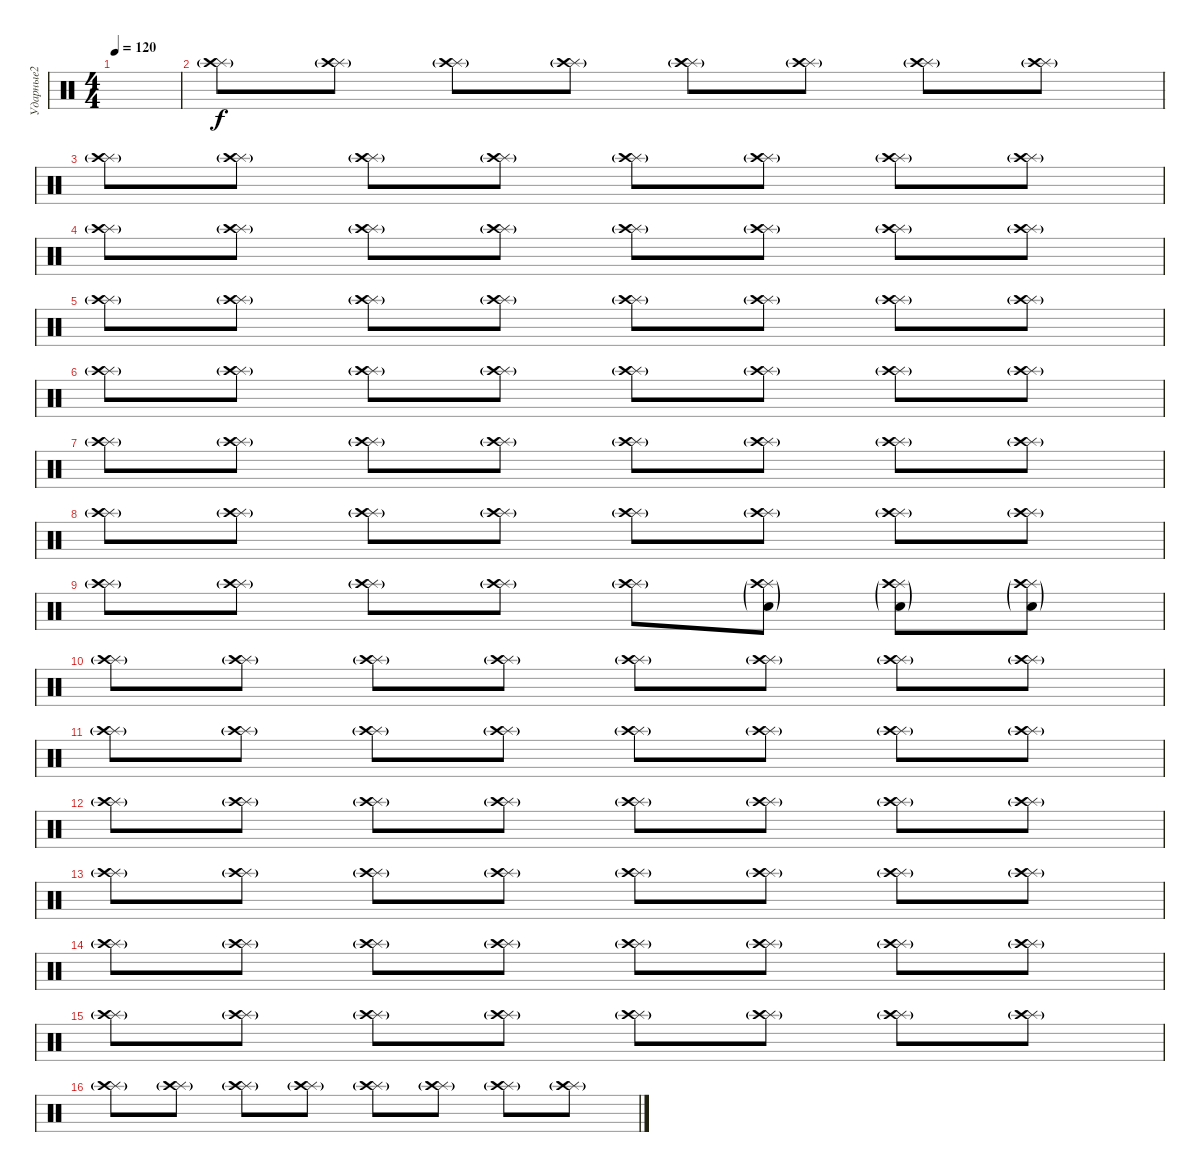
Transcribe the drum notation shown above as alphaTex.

\track ("Ударные2" "Ударные2") {instrument percussion bank 2}
\staff {score}
\articulation defaults
\ts (4 4)
\tempo 120
\clef neutral
\ks c
|
("Splash (hit)"{g} "Crash high (hit)"{g}).8 ("Splash (hit)"{g} "Crash high (hit)"{g}).8 ("Splash (hit)"{g} "Crash high (hit)"{g}).8 ("Splash (hit)"{g} "Crash high (hit)"{g}).8 ("Splash (hit)"{g} "Crash high (hit)"{g}).8 ("Splash (hit)"{g} "Crash high (hit)"{g}).8 ("Splash (hit)"{g} "Crash high (hit)"{g}).8 ("Splash (hit)"{g} "Crash high (hit)"{g}).8 |
("Splash (hit)"{g} "Crash high (hit)"{g}).8 ("Splash (hit)"{g} "Crash high (hit)"{g}).8 ("Splash (hit)"{g} "Crash high (hit)"{g}).8 ("Splash (hit)"{g} "Crash high (hit)"{g}).8 ("Splash (hit)"{g} "Crash high (hit)"{g}).8 ("Splash (hit)"{g} "Crash high (hit)"{g}).8 ("Splash (hit)"{g} "Crash high (hit)"{g}).8 ("Splash (hit)"{g} "Crash high (hit)"{g}).8 |
("Splash (hit)"{g} "Crash high (hit)"{g}).8 ("Splash (hit)"{g} "Crash high (hit)"{g}).8 ("Splash (hit)"{g} "Crash high (hit)"{g}).8 ("Splash (hit)"{g} "Crash high (hit)"{g}).8 ("Splash (hit)"{g} "Crash high (hit)"{g}).8 ("Splash (hit)"{g} "Crash high (hit)"{g}).8 ("Splash (hit)"{g} "Crash high (hit)"{g}).8 ("Splash (hit)"{g} "Crash high (hit)"{g}).8 |
("Splash (hit)"{g} "Crash high (hit)"{g}).8 ("Splash (hit)"{g} "Crash high (hit)"{g}).8 ("Splash (hit)"{g} "Crash high (hit)"{g}).8 ("Splash (hit)"{g} "Crash high (hit)"{g}).8 ("Splash (hit)"{g} "Crash high (hit)"{g}).8 ("Splash (hit)"{g} "Crash high (hit)"{g}).8 ("Splash (hit)"{g} "Crash high (hit)"{g}).8 ("Splash (hit)"{g} "Crash high (hit)"{g}).8 |
("Splash (hit)"{g} "Crash high (hit)"{g}).8 ("Splash (hit)"{g} "Crash high (hit)"{g}).8 ("Splash (hit)"{g} "Crash high (hit)"{g}).8 ("Splash (hit)"{g} "Crash high (hit)"{g}).8 ("Splash (hit)"{g} "Crash high (hit)"{g}).8 ("Splash (hit)"{g} "Crash high (hit)"{g}).8 ("Splash (hit)"{g} "Crash high (hit)"{g}).8 ("Splash (hit)"{g} "Crash high (hit)"{g}).8 |
("Splash (hit)"{g} "Crash high (hit)"{g}).8 ("Splash (hit)"{g} "Crash high (hit)"{g}).8 ("Splash (hit)"{g} "Crash high (hit)"{g}).8 ("Splash (hit)"{g} "Crash high (hit)"{g}).8 ("Splash (hit)"{g} "Crash high (hit)"{g}).8 ("Splash (hit)"{g} "Crash high (hit)"{g}).8 ("Splash (hit)"{g} "Crash high (hit)"{g}).8 ("Splash (hit)"{g} "Crash high (hit)"{g}).8 |
("Splash (hit)"{g} "Crash high (hit)"{g}).8 ("Splash (hit)"{g} "Crash high (hit)"{g}).8 ("Splash (hit)"{g} "Crash high (hit)"{g}).8 ("Splash (hit)"{g} "Crash high (hit)"{g}).8 ("Splash (hit)"{g} "Crash high (hit)"{g}).8 ("Splash (hit)"{g} "Crash high (hit)"{g}).8 ("Splash (hit)"{g} "Crash high (hit)"{g}).8 ("Splash (hit)"{g} "Crash high (hit)"{g}).8 |
("Splash (hit)"{g} "Crash high (hit)"{g}).8 ("Splash (hit)"{g} "Crash high (hit)"{g}).8 ("Splash (hit)"{g} "Crash high (hit)"{g}).8 ("Splash (hit)"{g} "Crash high (hit)"{g}).8 ("Splash (hit)"{g} "Crash high (hit)"{g}).8 ("Splash (hit)"{g} "Crash high (hit)"{g} "Snare (hit)"{g}).8 ("Splash (hit)"{g} "Crash high (hit)"{g} "Snare (hit)"{g}).8 ("Splash (hit)"{g} "Crash high (hit)"{g} "Snare (hit)"{g}).8 |
("Splash (hit)"{g} "Crash high (hit)"{g}).8 ("Splash (hit)"{g} "Crash high (hit)"{g}).8 ("Splash (hit)"{g} "Crash high (hit)"{g}).8 ("Splash (hit)"{g} "Crash high (hit)"{g}).8 ("Splash (hit)"{g} "Crash high (hit)"{g}).8 ("Splash (hit)"{g} "Crash high (hit)"{g}).8 ("Splash (hit)"{g} "Crash high (hit)"{g}).8 ("Splash (hit)"{g} "Crash high (hit)"{g}).8 |
("Splash (hit)"{g} "Crash high (hit)"{g}).8 ("Splash (hit)"{g} "Crash high (hit)"{g}).8 ("Splash (hit)"{g} "Crash high (hit)"{g}).8 ("Splash (hit)"{g} "Crash high (hit)"{g}).8 ("Splash (hit)"{g} "Crash high (hit)"{g}).8 ("Splash (hit)"{g} "Crash high (hit)"{g}).8 ("Splash (hit)"{g} "Crash high (hit)"{g}).8 ("Splash (hit)"{g} "Crash high (hit)"{g}).8 |
("Splash (hit)"{g} "Crash high (hit)"{g}).8 ("Splash (hit)"{g} "Crash high (hit)"{g}).8 ("Splash (hit)"{g} "Crash high (hit)"{g}).8 ("Splash (hit)"{g} "Crash high (hit)"{g}).8 ("Splash (hit)"{g} "Crash high (hit)"{g}).8 ("Splash (hit)"{g} "Crash high (hit)"{g}).8 ("Splash (hit)"{g} "Crash high (hit)"{g}).8 ("Splash (hit)"{g} "Crash high (hit)"{g}).8 |
("Splash (hit)"{g} "Crash high (hit)"{g}).8 ("Splash (hit)"{g} "Crash high (hit)"{g}).8 ("Splash (hit)"{g} "Crash high (hit)"{g}).8 ("Splash (hit)"{g} "Crash high (hit)"{g}).8 ("Splash (hit)"{g} "Crash high (hit)"{g}).8 ("Splash (hit)"{g} "Crash high (hit)"{g}).8 ("Splash (hit)"{g} "Crash high (hit)"{g}).8 ("Splash (hit)"{g} "Crash high (hit)"{g}).8 |
("Splash (hit)"{g} "Crash high (hit)"{g}).8 ("Splash (hit)"{g} "Crash high (hit)"{g}).8 ("Splash (hit)"{g} "Crash high (hit)"{g}).8 ("Splash (hit)"{g} "Crash high (hit)"{g}).8 ("Splash (hit)"{g} "Crash high (hit)"{g}).8 ("Splash (hit)"{g} "Crash high (hit)"{g}).8 ("Splash (hit)"{g} "Crash high (hit)"{g}).8 ("Splash (hit)"{g} "Crash high (hit)"{g}).8 |
("Splash (hit)"{g} "Crash high (hit)"{g}).8 ("Splash (hit)"{g} "Crash high (hit)"{g}).8 ("Splash (hit)"{g} "Crash high (hit)"{g}).8 ("Splash (hit)"{g} "Crash high (hit)"{g}).8 ("Splash (hit)"{g} "Crash high (hit)"{g}).8 ("Splash (hit)"{g} "Crash high (hit)"{g}).8 ("Splash (hit)"{g} "Crash high (hit)"{g}).8 ("Splash (hit)"{g} "Crash high (hit)"{g}).8 |
("Splash (hit)"{g} "Crash high (hit)"{g}).8 ("Splash (hit)"{g} "Crash high (hit)"{g}).8 ("Splash (hit)"{g} "Crash high (hit)"{g}).8 ("Splash (hit)"{g} "Crash high (hit)"{g}).8 ("Splash (hit)"{g} "Crash high (hit)"{g}).8 ("Splash (hit)"{g} "Crash high (hit)"{g}).8 ("Splash (hit)"{g} "Crash high (hit)"{g}).8 ("Splash (hit)"{g} "Crash high (hit)"{g}).8
